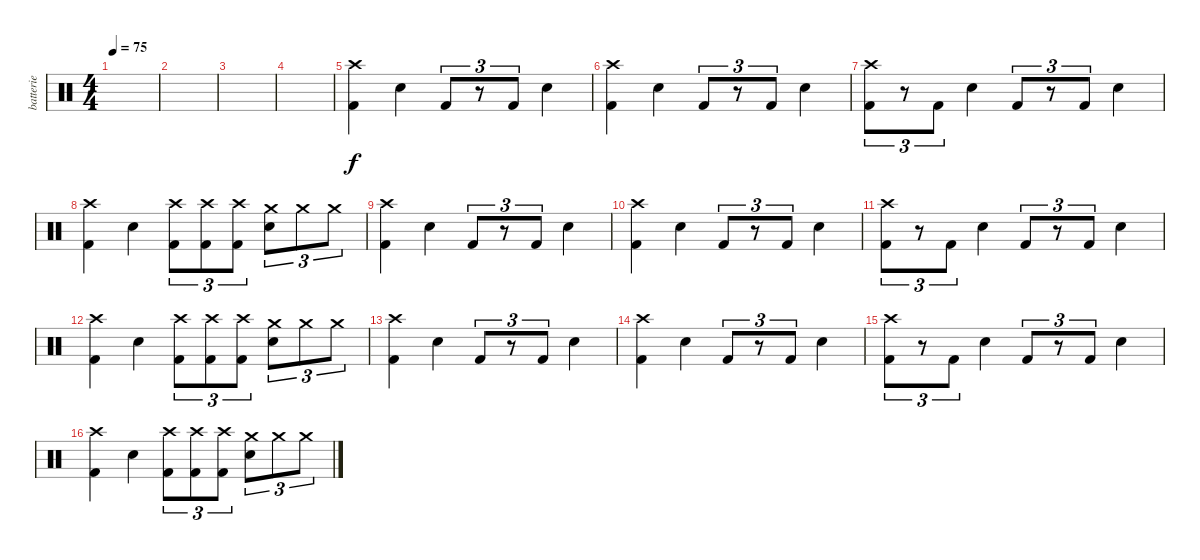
\track ("batterie" "batterie") {instrument percussion}
\staff {score}
\articulation defaults
\ts (4 4)
\tempo 75
\clef neutral
\ks c
|
|
|
|
("Kick (hit) 2" "Crash high (hit)").4 "Electric Snare (hit)".4 "Kick (hit) 2".8{tu (3 2)} r.8{tu (3 2)} "Kick (hit) 2".8{tu (3 2)} "Electric Snare (hit)".4 |
("Kick (hit) 2" "Crash high (hit)").4 "Electric Snare (hit)".4 "Kick (hit) 2".8{tu (3 2)} r.8{tu (3 2)} "Kick (hit) 2".8{tu (3 2)} "Electric Snare (hit)".4 |
("Kick (hit) 2" "Crash high (hit)").8{tu (3 2)} r.8{tu (3 2)} "Kick (hit) 2".8{tu (3 2)} "Electric Snare (hit)".4 "Kick (hit) 2".8{tu (3 2)} r.8{tu (3 2)} "Kick (hit) 2".8{tu (3 2)} "Electric Snare (hit)".4 |
("Kick (hit) 2" "Crash high (hit)").4 "Electric Snare (hit)".4 ("Crash high (hit)" "Kick (hit) 2").8{tu (3 2)} ("Crash high (hit)" "Kick (hit) 2").8{tu (3 2)} ("Crash high (hit)" "Kick (hit) 2").8{tu (3 2)} ("Crash medium (hit)" "Electric Snare (hit)").8{tu (3 2)} "Crash medium (hit)".8{tu (3 2)} "Crash medium (hit)".8{tu (3 2)} |
("Kick (hit) 2" "Crash high (hit)").4 "Electric Snare (hit)".4 "Kick (hit) 2".8{tu (3 2)} r.8{tu (3 2)} "Kick (hit) 2".8{tu (3 2)} "Electric Snare (hit)".4 |
("Kick (hit) 2" "Crash high (hit)").4 "Electric Snare (hit)".4 "Kick (hit) 2".8{tu (3 2)} r.8{tu (3 2)} "Kick (hit) 2".8{tu (3 2)} "Electric Snare (hit)".4 |
("Kick (hit) 2" "Crash high (hit)").8{tu (3 2)} r.8{tu (3 2)} "Kick (hit) 2".8{tu (3 2)} "Electric Snare (hit)".4 "Kick (hit) 2".8{tu (3 2)} r.8{tu (3 2)} "Kick (hit) 2".8{tu (3 2)} "Electric Snare (hit)".4 |
("Kick (hit) 2" "Crash high (hit)").4 "Electric Snare (hit)".4 ("Crash high (hit)" "Kick (hit) 2").8{tu (3 2)} ("Crash high (hit)" "Kick (hit) 2").8{tu (3 2)} ("Crash high (hit)" "Kick (hit) 2").8{tu (3 2)} ("Crash medium (hit)" "Electric Snare (hit)").8{tu (3 2)} "Crash medium (hit)".8{tu (3 2)} "Crash medium (hit)".8{tu (3 2)} |
("Kick (hit) 2" "Crash high (hit)").4 "Electric Snare (hit)".4 "Kick (hit) 2".8{tu (3 2)} r.8{tu (3 2)} "Kick (hit) 2".8{tu (3 2)} "Electric Snare (hit)".4 |
("Kick (hit) 2" "Crash high (hit)").4 "Electric Snare (hit)".4 "Kick (hit) 2".8{tu (3 2)} r.8{tu (3 2)} "Kick (hit) 2".8{tu (3 2)} "Electric Snare (hit)".4 |
("Kick (hit) 2" "Crash high (hit)").8{tu (3 2)} r.8{tu (3 2)} "Kick (hit) 2".8{tu (3 2)} "Electric Snare (hit)".4 "Kick (hit) 2".8{tu (3 2)} r.8{tu (3 2)} "Kick (hit) 2".8{tu (3 2)} "Electric Snare (hit)".4 |
("Kick (hit) 2" "Crash high (hit)").4 "Electric Snare (hit)".4 ("Crash high (hit)" "Kick (hit) 2").8{tu (3 2)} ("Crash high (hit)" "Kick (hit) 2").8{tu (3 2)} ("Crash high (hit)" "Kick (hit) 2").8{tu (3 2)} ("Crash medium (hit)" "Electric Snare (hit)").8{tu (3 2)} "Crash medium (hit)".8{tu (3 2)} "Crash medium (hit)".8{tu (3 2)}
